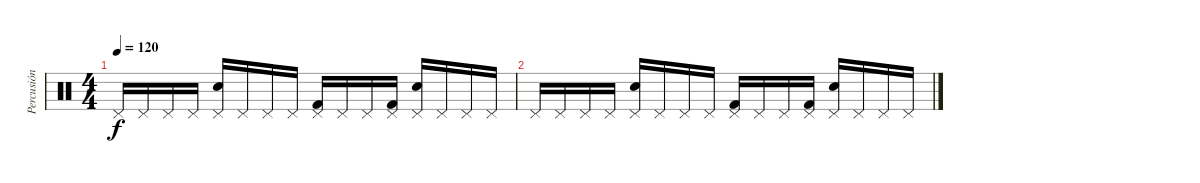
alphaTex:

\track ("Percusión" "Percusión") {instrument percussion}
\staff {score}
\articulation defaults
\ts (4 4)
\tempo 120
\clef neutral
\ks c "Pedal Hi-Hat (hit)".16{dy f} "Pedal Hi-Hat (hit)".16 "Pedal Hi-Hat (hit)".16 "Pedal Hi-Hat (hit)".16
("Pedal Hi-Hat (hit)" "Snare (hit) 2").16 "Pedal Hi-Hat (hit)".16 "Pedal Hi-Hat (hit)".16 "Pedal Hi-Hat (hit)".16 ("Pedal Hi-Hat (hit)" "Kick (hit) 2").16 "Pedal Hi-Hat (hit)".16 "Pedal Hi-Hat (hit)".16 ("Pedal Hi-Hat (hit)" "Kick (hit) 2").16 ("Pedal Hi-Hat (hit)" "Snare (hit) 2").16 "Pedal Hi-Hat (hit)".16 "Pedal Hi-Hat (hit)".16 "Pedal Hi-Hat (hit)".16 |
"Pedal Hi-Hat (hit)".16 "Pedal Hi-Hat (hit)".16 "Pedal Hi-Hat (hit)".16 "Pedal Hi-Hat (hit)".16 ("Pedal Hi-Hat (hit)" "Snare (hit) 2").16 "Pedal Hi-Hat (hit)".16 "Pedal Hi-Hat (hit)".16 "Pedal Hi-Hat (hit)".16 ("Pedal Hi-Hat (hit)" "Kick (hit) 2").16 "Pedal Hi-Hat (hit)".16 "Pedal Hi-Hat (hit)".16 ("Pedal Hi-Hat (hit)" "Kick (hit) 2").16 ("Pedal Hi-Hat (hit)" "Snare (hit) 2").16 "Pedal Hi-Hat (hit)".16 "Pedal Hi-Hat (hit)".16 "Pedal Hi-Hat (hit)".16
